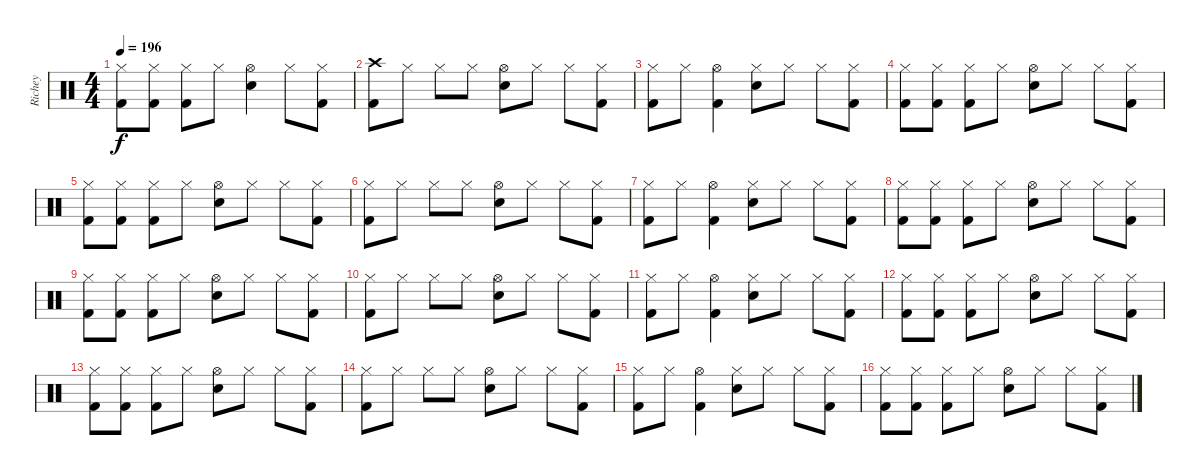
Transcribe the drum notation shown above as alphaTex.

\track ("Richey" "Richey") {instrument percussion}
\staff {score}
\articulation defaults
\ts (4 4)
\tempo 196
\clef neutral
\ks c
("Hi-Hat (closed)" "Kick (hit) 2").8{dy f} ("Hi-Hat (closed)" "Kick (hit) 2").8 ("Hi-Hat (closed)" "Kick (hit) 2").8 "Hi-Hat (closed)".8 ("Hi-Hat (open)" "Snare (hit) 2").4 "Hi-Hat (closed)".8 ("Hi-Hat (closed)" "Kick (hit) 2").8 |
("Crash high (hit)" "Kick (hit) 2").8 "Hi-Hat (closed)".8 "Hi-Hat (closed)".8 "Hi-Hat (closed)".8 ("Hi-Hat (open)" "Snare (hit) 2").8 "Hi-Hat (closed)".8 "Hi-Hat (closed)".8 ("Hi-Hat (closed)" "Kick (hit) 2").8 |
("Hi-Hat (closed)" "Kick (hit) 2").8 "Hi-Hat (closed)".8 ("Hi-Hat (open)" "Kick (hit) 2").4 ("Hi-Hat (closed)" "Snare (hit) 2").8 "Hi-Hat (closed)".8 "Hi-Hat (closed)".8 ("Hi-Hat (closed)" "Kick (hit) 2").8 |
("Hi-Hat (closed)" "Kick (hit) 2").8 ("Hi-Hat (closed)" "Kick (hit) 2").8 ("Hi-Hat (closed)" "Kick (hit) 2").8 "Hi-Hat (closed)".8 ("Hi-Hat (open)" "Snare (hit) 2").8 "Hi-Hat (closed)".8 "Hi-Hat (closed)".8 ("Hi-Hat (closed)" "Kick (hit) 2").8 |
("Hi-Hat (closed)" "Kick (hit) 2").8 ("Hi-Hat (closed)" "Kick (hit) 2").8 ("Hi-Hat (closed)" "Kick (hit) 2").8 "Hi-Hat (closed)".8 ("Hi-Hat (open)" "Snare (hit) 2").8 "Hi-Hat (closed)".8 "Hi-Hat (closed)".8 ("Hi-Hat (closed)" "Kick (hit) 2").8 |
("Hi-Hat (closed)" "Kick (hit) 2").8 "Hi-Hat (closed)".8 "Hi-Hat (closed)".8 "Hi-Hat (closed)".8 ("Hi-Hat (open)" "Snare (hit) 2").8 "Hi-Hat (closed)".8 "Hi-Hat (closed)".8 ("Hi-Hat (closed)" "Kick (hit) 2").8 |
("Hi-Hat (closed)" "Kick (hit) 2").8 "Hi-Hat (closed)".8 ("Hi-Hat (open)" "Kick (hit) 2").4 ("Hi-Hat (closed)" "Snare (hit) 2").8 "Hi-Hat (closed)".8 "Hi-Hat (closed)".8 ("Hi-Hat (closed)" "Kick (hit) 2").8 |
("Hi-Hat (closed)" "Kick (hit) 2").8 ("Hi-Hat (closed)" "Kick (hit) 2").8 ("Hi-Hat (closed)" "Kick (hit) 2").8 "Hi-Hat (closed)".8 ("Hi-Hat (open)" "Snare (hit) 2").8 "Hi-Hat (closed)".8 "Hi-Hat (closed)".8 ("Hi-Hat (closed)" "Kick (hit) 2").8 |
("Hi-Hat (closed)" "Kick (hit) 2").8 ("Hi-Hat (closed)" "Kick (hit) 2").8 ("Hi-Hat (closed)" "Kick (hit) 2").8 "Hi-Hat (closed)".8 ("Hi-Hat (open)" "Snare (hit) 2").8 "Hi-Hat (closed)".8 "Hi-Hat (closed)".8 ("Hi-Hat (closed)" "Kick (hit) 2").8 |
("Hi-Hat (closed)" "Kick (hit) 2").8 "Hi-Hat (closed)".8 "Hi-Hat (closed)".8 "Hi-Hat (closed)".8 ("Hi-Hat (open)" "Snare (hit) 2").8 "Hi-Hat (closed)".8 "Hi-Hat (closed)".8 ("Hi-Hat (closed)" "Kick (hit) 2").8 |
("Hi-Hat (closed)" "Kick (hit) 2").8 "Hi-Hat (closed)".8 ("Hi-Hat (open)" "Kick (hit) 2").4 ("Hi-Hat (closed)" "Snare (hit) 2").8 "Hi-Hat (closed)".8 "Hi-Hat (closed)".8 ("Hi-Hat (closed)" "Kick (hit) 2").8 |
("Hi-Hat (closed)" "Kick (hit) 2").8 ("Hi-Hat (closed)" "Kick (hit) 2").8 ("Hi-Hat (closed)" "Kick (hit) 2").8 "Hi-Hat (closed)".8 ("Hi-Hat (open)" "Snare (hit) 2").8 "Hi-Hat (closed)".8 "Hi-Hat (closed)".8 ("Hi-Hat (closed)" "Kick (hit) 2").8 |
("Hi-Hat (closed)" "Kick (hit) 2").8 ("Hi-Hat (closed)" "Kick (hit) 2").8 ("Hi-Hat (closed)" "Kick (hit) 2").8 "Hi-Hat (closed)".8 ("Hi-Hat (open)" "Snare (hit) 2").8 "Hi-Hat (closed)".8 "Hi-Hat (closed)".8 ("Hi-Hat (closed)" "Kick (hit) 2").8 |
("Hi-Hat (closed)" "Kick (hit) 2").8 "Hi-Hat (closed)".8 "Hi-Hat (closed)".8 "Hi-Hat (closed)".8 ("Hi-Hat (open)" "Snare (hit) 2").8 "Hi-Hat (closed)".8 "Hi-Hat (closed)".8 ("Hi-Hat (closed)" "Kick (hit) 2").8 |
("Hi-Hat (closed)" "Kick (hit) 2").8 "Hi-Hat (closed)".8 ("Hi-Hat (open)" "Kick (hit) 2").4 ("Hi-Hat (closed)" "Snare (hit) 2").8 "Hi-Hat (closed)".8 "Hi-Hat (closed)".8 ("Hi-Hat (closed)" "Kick (hit) 2").8 |
("Hi-Hat (closed)" "Kick (hit) 2").8 ("Hi-Hat (closed)" "Kick (hit) 2").8 ("Hi-Hat (closed)" "Kick (hit) 2").8 "Hi-Hat (closed)".8 ("Hi-Hat (open)" "Snare (hit) 2").8 "Hi-Hat (closed)".8 "Hi-Hat (closed)".8 ("Hi-Hat (closed)" "Kick (hit) 2").8
